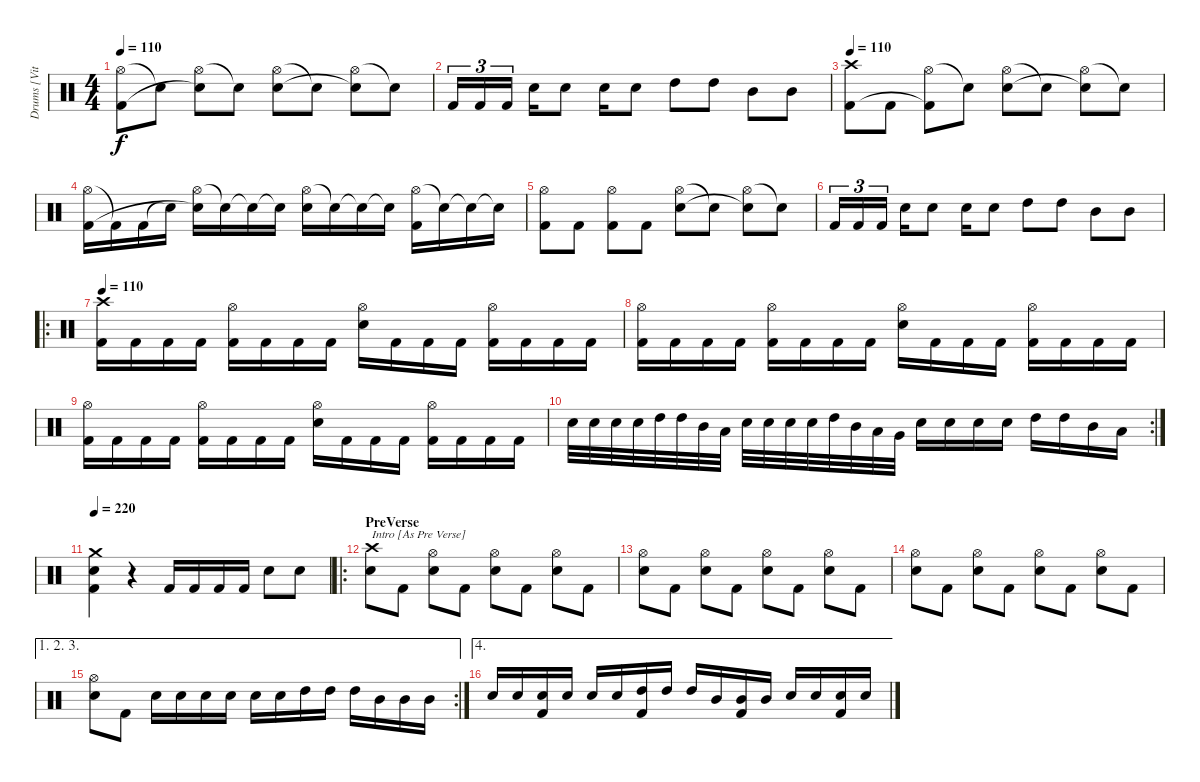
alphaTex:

\track ("Drums [Vitek]" "Drums [Vit") {instrument percussion}
\staff {score}
\articulation defaults
\ts (4 4)
\tempo 110
\clef neutral
\ks c
("Hi-Hat (open)" "Kick (hit) 2").8{dy f} "Snare (hit)"{t}.8 ("Hi-Hat (open)" "Snare (hit)"{t}).8 "Snare (hit)"{t}.8 ("Hi-Hat (open)" "Electric Snare (hit)").8 "Snare (hit)"{t}.8 ("Hi-Hat (open)" "Snare (hit)"{t}).8 "Snare (hit)"{t}.8 |
"Kick (hit) 2".16{tu (3 2)} "Kick (hit) 2".16{tu (3 2)} "Kick (hit) 2".16{tu (3 2)} "Electric Snare (hit)".16 "Electric Snare (hit)".8 "Electric Snare (hit)".16 "Electric Snare (hit)".8 "High Tom (hit)".8 "High Tom (hit)".8 "Mid Tom (hit)".8 "Mid Tom (hit)".8 |
\tempo 110
("Crash high (hit)" "Kick (hit) 2").8 "Kick (hit) 2".8 ("Hi-Hat (open)" "Kick (hit) 2"{t}).8 "Snare (hit)"{t}.8 ("Hi-Hat (open)" "Electric Snare (hit)").8 "Snare (hit)"{t}.8 ("Hi-Hat (open)" "Snare (hit)"{t}).8 "Snare (hit)"{t}.8 |
("Hi-Hat (open)" "Kick (hit) 2").16 "Kick (hit) 2"{t}.16 "Kick (hit) 2".16 "Snare (hit)"{t}.16 ("Hi-Hat (open)" "Snare (hit)"{t}).16 "Snare (hit)"{t}.16 "Snare (hit)"{t}.16 "Snare (hit)"{t}.16 ("Hi-Hat (open)" "Electric Snare (hit)").16 "Snare (hit)"{t}.16 "Snare (hit)"{t}.16 "Snare (hit)"{t}.16 ("Hi-Hat (open)" "Kick (hit) 2").16 "Snare (hit)"{t}.16 "Snare (hit)"{t}.16 "Snare (hit)"{t}.16 |
("Hi-Hat (open)" "Kick (hit) 2").8 "Kick (hit) 2".8 ("Hi-Hat (open)" "Kick (hit) 2").8 "Kick (hit) 2".8 ("Hi-Hat (open)" "Electric Snare (hit)").8 "Snare (hit)"{t}.8 ("Hi-Hat (open)" "Snare (hit)"{t}).8 "Snare (hit)"{t}.8 |
"Kick (hit) 2".16{tu (3 2)} "Kick (hit) 2".16{tu (3 2)} "Kick (hit) 2".16{tu (3 2)} "Electric Snare (hit)".16 "Electric Snare (hit)".8 "Electric Snare (hit)".16 "Electric Snare (hit)".8 "High Tom (hit)".8 "High Tom (hit)".8 "Mid Tom (hit)".8 "Mid Tom (hit)".8 |
\ro
\tempo 110
("Crash high (hit)" "Kick (hit) 2").16 "Kick (hit) 2".16 "Kick (hit) 2".16 "Kick (hit) 2".16 ("Hi-Hat (open)" "Kick (hit) 2").16 "Kick (hit) 2".16 "Kick (hit) 2".16 "Kick (hit) 2".16 ("Hi-Hat (open)" "Electric Snare (hit)").16 "Kick (hit) 2".16 "Kick (hit) 2".16 "Kick (hit) 2".16 ("Hi-Hat (open)" "Kick (hit) 2").16 "Kick (hit) 2".16 "Kick (hit) 2".16 "Kick (hit) 2".16 |
("Hi-Hat (open)" "Kick (hit) 2").16 "Kick (hit) 2".16 "Kick (hit) 2".16 "Kick (hit) 2".16 ("Hi-Hat (open)" "Kick (hit) 2").16 "Kick (hit) 2".16 "Kick (hit) 2".16 "Kick (hit) 2".16 ("Hi-Hat (open)" "Electric Snare (hit)").16 "Kick (hit) 2".16 "Kick (hit) 2".16 "Kick (hit) 2".16 ("Hi-Hat (open)" "Kick (hit) 2").16 "Kick (hit) 2".16 "Kick (hit) 2".16 "Kick (hit) 2".16 |
("Hi-Hat (open)" "Kick (hit) 2").16 "Kick (hit) 2".16 "Kick (hit) 2".16 "Kick (hit) 2".16 ("Hi-Hat (open)" "Kick (hit) 2").16 "Kick (hit) 2".16 "Kick (hit) 2".16 "Kick (hit) 2".16 ("Hi-Hat (open)" "Electric Snare (hit)").16 "Kick (hit) 2".16 "Kick (hit) 2".16 "Kick (hit) 2".16 ("Hi-Hat (open)" "Kick (hit) 2").16 "Kick (hit) 2".16 "Kick (hit) 2".16 "Kick (hit) 2".16 |
\rc 2 "Electric Snare (hit)".32 "Electric Snare (hit)".32 "Electric Snare (hit)".32 "Electric Snare (hit)".32 "High Tom (hit)".32 "High Tom (hit)".32 "Mid Tom (hit)".32 "Low Tom (hit)".32 "Electric Snare (hit)".32 "Electric Snare (hit)".32 "Electric Snare (hit)".32 "Electric Snare (hit)".32 "High Tom (hit)".32 "Mid Tom (hit)".32 "Low Tom (hit)".32 "Very Low Tom (hit)".32 "Electric Snare (hit)".16 "Electric Snare (hit)".16 "Electric Snare (hit)".16 "Electric Snare (hit)".16 "High Tom (hit)".16 "High Tom (hit)".16 "Mid Tom (hit)".16 "Low Tom (hit)".16
|
\tempo 220
("Crash medium (hit)" "Electric Snare (hit)" "Kick (hit) 2").4 r.4 "Kick (hit) 2".16 "Kick (hit) 2".16 "Kick (hit) 2".16 "Kick (hit) 2".16 "Electric Snare (hit)".8 "Electric Snare (hit)".8 |
\ro
\section ("" "PreVerse")
("Crash high (hit)" "Electric Snare (hit)").8{txt "Intro [As Pre Verse]"} "Kick (hit) 2".8 ("Hi-Hat (open)" "Electric Snare (hit)").8 "Kick (hit) 2".8 ("Hi-Hat (open)" "Electric Snare (hit)").8 "Kick (hit) 2".8 ("Hi-Hat (open)" "Electric Snare (hit)").8 "Kick (hit) 2".8 |
("Hi-Hat (open)" "Electric Snare (hit)").8 "Kick (hit) 2".8 ("Hi-Hat (open)" "Electric Snare (hit)").8 "Kick (hit) 2".8 ("Hi-Hat (open)" "Electric Snare (hit)").8 "Kick (hit) 2".8 ("Hi-Hat (open)" "Electric Snare (hit)").8 "Kick (hit) 2".8 |
("Hi-Hat (open)" "Electric Snare (hit)").8 "Kick (hit) 2".8 ("Hi-Hat (open)" "Electric Snare (hit)").8 "Kick (hit) 2".8 ("Hi-Hat (open)" "Electric Snare (hit)").8 "Kick (hit) 2".8 ("Hi-Hat (open)" "Electric Snare (hit)").8 "Kick (hit) 2".8 |
\ae (1 2 3)
\rc 2
("Hi-Hat (open)" "Electric Snare (hit)").8 "Kick (hit) 2".8 "Electric Snare (hit)".16 "Electric Snare (hit)".16 "Electric Snare (hit)".16 "Electric Snare (hit)".16 "Electric Snare (hit)".16 "Electric Snare (hit)".16 "High Tom (hit)".16 "High Tom (hit)".16 "High Tom (hit)".16 "Mid Tom (hit)".16 "Mid Tom (hit)".16 "Mid Tom (hit)".16 |
\ae 4 "Electric Snare (hit)".16 "Electric Snare (hit)".16
("Electric Snare (hit)" "Kick (hit) 2").16 "Electric Snare (hit)".16 "Electric Snare (hit)".16 "Electric Snare (hit)".16 ("High Tom (hit)" "Kick (hit) 2").16 "High Tom (hit)".16 "High Tom (hit)".16 "Mid Tom (hit)".16 ("Mid Tom (hit)" "Kick (hit) 2").16 "Mid Tom (hit)".16 "Electric Snare (hit)".16 "Electric Snare (hit)".16 ("Electric Snare (hit)" "Kick (hit) 2").16 "Electric Snare (hit)".16
